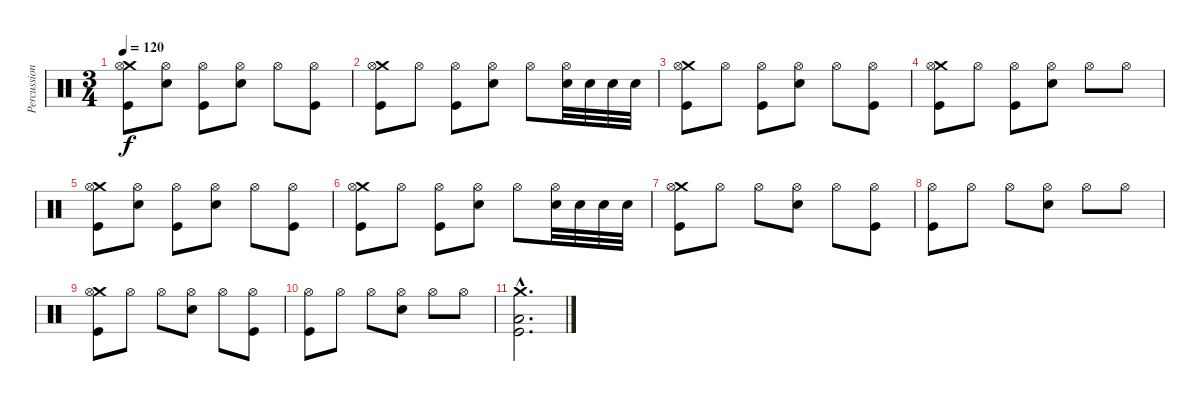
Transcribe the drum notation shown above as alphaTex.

\track ("Percussion" "Percussion") {instrument percussion}
\staff {score}
\articulation defaults
\ts (3 4)
\tempo 120
\clef neutral
\ks c
("Crash medium (hit)" "Hi-Hat (open)" "Kick (hit)").8{dy f} ("Hi-Hat (open)" "Electric Snare (hit)").8 ("Hi-Hat (open)" "Kick (hit)").8 ("Hi-Hat (open)" "Electric Snare (hit)").8 "Hi-Hat (open)".8 ("Hi-Hat (open)" "Kick (hit)").8 |
("Crash medium (hit)" "Hi-Hat (open)" "Kick (hit)").8 "Hi-Hat (open)".8 ("Hi-Hat (open)" "Kick (hit)").8 ("Hi-Hat (open)" "Electric Snare (hit)").8 "Hi-Hat (open)".8 ("Hi-Hat (open)" "Electric Snare (hit)").32 "Electric Snare (hit)".32 "Electric Snare (hit)".32 "Electric Snare (hit)".32 |
("Crash medium (hit)" "Hi-Hat (open)" "Kick (hit)").8 "Hi-Hat (open)".8 ("Hi-Hat (open)" "Kick (hit)").8 ("Hi-Hat (open)" "Electric Snare (hit)").8 "Hi-Hat (open)".8 ("Hi-Hat (open)" "Kick (hit)").8 |
("Crash medium (hit)" "Hi-Hat (open)" "Kick (hit)").8 "Hi-Hat (open)".8 ("Hi-Hat (open)" "Kick (hit)").8 ("Hi-Hat (open)" "Electric Snare (hit)").8 "Hi-Hat (open)".8 "Hi-Hat (open)".8 |
("Crash medium (hit)" "Hi-Hat (open)" "Kick (hit)").8 ("Hi-Hat (open)" "Electric Snare (hit)").8 ("Hi-Hat (open)" "Kick (hit)").8 ("Hi-Hat (open)" "Electric Snare (hit)").8 "Hi-Hat (open)".8 ("Hi-Hat (open)" "Kick (hit)").8 |
("Crash medium (hit)" "Hi-Hat (open)" "Kick (hit)").8 "Hi-Hat (open)".8 ("Hi-Hat (open)" "Kick (hit)").8 ("Hi-Hat (open)" "Electric Snare (hit)").8 "Hi-Hat (open)".8 ("Hi-Hat (open)" "Electric Snare (hit)").32 "Electric Snare (hit)".32 "Electric Snare (hit)".32 "Electric Snare (hit)".32 |
("Crash medium (hit)" "Hi-Hat (open)" "Kick (hit)").8 "Hi-Hat (open)".8 "Hi-Hat (open)".8 ("Electric Snare (hit)" "Hi-Hat (open)").8 "Hi-Hat (open)".8 ("Hi-Hat (open)" "Kick (hit)").8 |
("Hi-Hat (open)" "Kick (hit)").8 "Hi-Hat (open)".8 "Hi-Hat (open)".8 ("Electric Snare (hit)" "Hi-Hat (open)").8 "Hi-Hat (open)".8 "Hi-Hat (open)".8 |
("Crash medium (hit)" "Hi-Hat (open)" "Kick (hit)").8 "Hi-Hat (open)".8 "Hi-Hat (open)".8 ("Electric Snare (hit)" "Hi-Hat (open)").8 "Hi-Hat (open)".8 ("Hi-Hat (open)" "Kick (hit)").8 |
("Hi-Hat (open)" "Kick (hit)").8 "Hi-Hat (open)".8 "Hi-Hat (open)".8 ("Electric Snare (hit)" "Hi-Hat (open)").8 "Hi-Hat (open)".8 "Hi-Hat (open)".8 |
("Crash medium (hit)"{hac} "Low Floor Tom (hit)"{hac} "Kick (hit)"{hac}).2{d}
